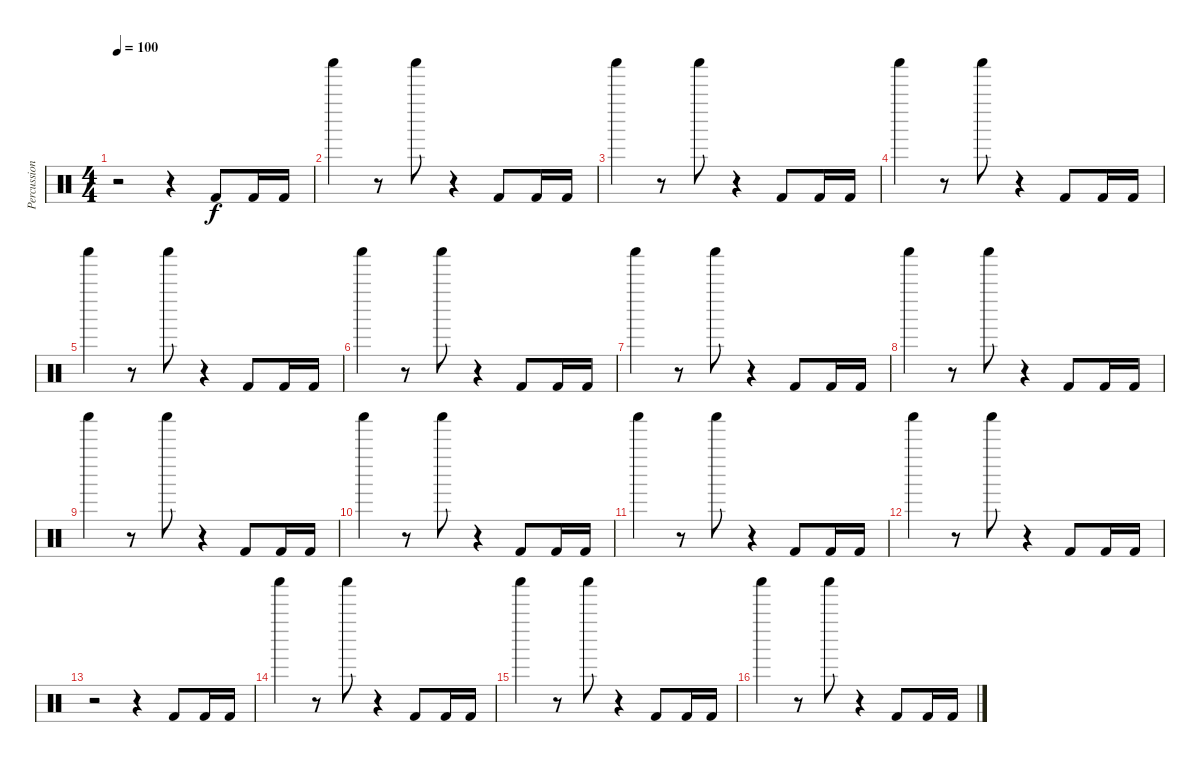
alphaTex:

\track ("Percussion" "Percussion") {instrument percussion}
\staff {score}
\articulation defaults
\ts (4 4)
\tempo 100
\clef neutral
\ks c
r.2{dy f} r.4 "Kick (hit) 2".8 "Kick (hit) 2".16 "Kick (hit) 2".16 |
"Shaker (hit)".4 r.8 "Shaker (hit)".8 r.4 "Kick (hit) 2".8 "Kick (hit) 2".16 "Kick (hit) 2".16 |
"Shaker (hit)".4 r.8 "Shaker (hit)".8 r.4 "Kick (hit) 2".8 "Kick (hit) 2".16 "Kick (hit) 2".16 |
"Shaker (hit)".4 r.8 "Shaker (hit)".8 r.4 "Kick (hit) 2".8 "Kick (hit) 2".16 "Kick (hit) 2".16 |
"Shaker (hit)".4 r.8 "Shaker (hit)".8 r.4 "Kick (hit) 2".8 "Kick (hit) 2".16 "Kick (hit) 2".16 |
"Shaker (hit)".4 r.8 "Shaker (hit)".8 r.4 "Kick (hit) 2".8 "Kick (hit) 2".16 "Kick (hit) 2".16 |
"Shaker (hit)".4 r.8 "Shaker (hit)".8 r.4 "Kick (hit) 2".8 "Kick (hit) 2".16 "Kick (hit) 2".16 |
"Shaker (hit)".4 r.8 "Shaker (hit)".8 r.4 "Kick (hit) 2".8 "Kick (hit) 2".16 "Kick (hit) 2".16 |
"Shaker (hit)".4 r.8 "Shaker (hit)".8 r.4 "Kick (hit) 2".8 "Kick (hit) 2".16 "Kick (hit) 2".16 |
"Shaker (hit)".4 r.8 "Shaker (hit)".8 r.4 "Kick (hit) 2".8 "Kick (hit) 2".16 "Kick (hit) 2".16 |
"Shaker (hit)".4 r.8 "Shaker (hit)".8 r.4 "Kick (hit) 2".8 "Kick (hit) 2".16 "Kick (hit) 2".16 |
"Shaker (hit)".4 r.8 "Shaker (hit)".8 r.4 "Kick (hit) 2".8 "Kick (hit) 2".16 "Kick (hit) 2".16 |
r.2 r.4 "Kick (hit) 2".8 "Kick (hit) 2".16 "Kick (hit) 2".16 |
"Shaker (hit)".4 r.8 "Shaker (hit)".8 r.4 "Kick (hit) 2".8 "Kick (hit) 2".16 "Kick (hit) 2".16 |
"Shaker (hit)".4 r.8 "Shaker (hit)".8 r.4 "Kick (hit) 2".8 "Kick (hit) 2".16 "Kick (hit) 2".16 |
"Shaker (hit)".4 r.8 "Shaker (hit)".8 r.4 "Kick (hit) 2".8 "Kick (hit) 2".16 "Kick (hit) 2".16
